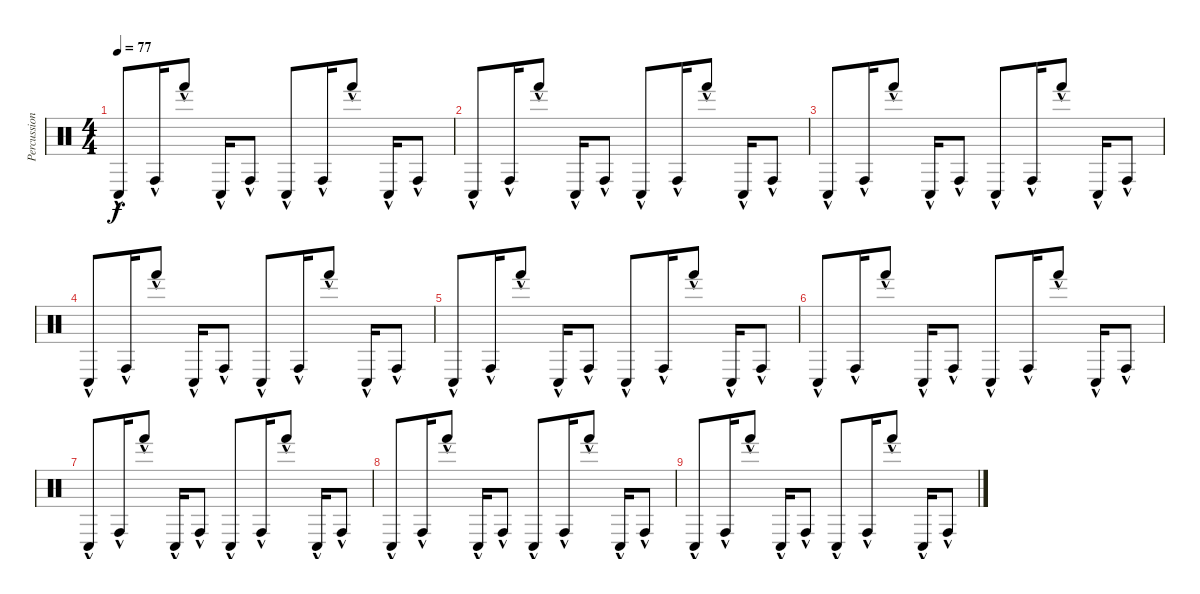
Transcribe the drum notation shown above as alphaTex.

\track ("Percussion" "Percussion") {instrument percussion}
\staff {score}
\articulation defaults
\ts (4 4)
\tempo 77
\clef neutral
\ks c "Conga low (hit)"{hac}.8{dy f} "Conga high (hit)"{hac}.16 "Hand (hit)"{hac}.8 "Conga low (hit)"{hac}.16 "Conga high (hit)"{hac}.8 "Conga low (hit)"{hac}.8 "Conga high (hit)"{hac}.16 "Hand (hit)"{hac}.8 "Conga low (hit)"{hac}.16 "Conga high (hit)"{hac}.8
|
"Conga low (hit)"{hac}.8 "Conga high (hit)"{hac}.16 "Hand (hit)"{hac}.8 "Conga low (hit)"{hac}.16 "Conga high (hit)"{hac}.8 "Conga low (hit)"{hac}.8 "Conga high (hit)"{hac}.16 "Hand (hit)"{hac}.8 "Conga low (hit)"{hac}.16 "Conga high (hit)"{hac}.8 |
"Conga low (hit)"{hac}.8 "Conga high (hit)"{hac}.16 "Hand (hit)"{hac}.8 "Conga low (hit)"{hac}.16 "Conga high (hit)"{hac}.8 "Conga low (hit)"{hac}.8 "Conga high (hit)"{hac}.16 "Hand (hit)"{hac}.8 "Conga low (hit)"{hac}.16 "Conga high (hit)"{hac}.8 |
"Conga low (hit)"{hac}.8 "Conga high (hit)"{hac}.16 "Hand (hit)"{hac}.8 "Conga low (hit)"{hac}.16 "Conga high (hit)"{hac}.8 "Conga low (hit)"{hac}.8 "Conga high (hit)"{hac}.16 "Hand (hit)"{hac}.8 "Conga low (hit)"{hac}.16 "Conga high (hit)"{hac}.8 |
"Conga low (hit)"{hac}.8 "Conga high (hit)"{hac}.16 "Hand (hit)"{hac}.8 "Conga low (hit)"{hac}.16 "Conga high (hit)"{hac}.8 "Conga low (hit)"{hac}.8 "Conga high (hit)"{hac}.16 "Hand (hit)"{hac}.8 "Conga low (hit)"{hac}.16 "Conga high (hit)"{hac}.8 |
"Conga low (hit)"{hac}.8{volume 10} "Conga high (hit)"{hac}.16 "Hand (hit)"{hac}.8 "Conga low (hit)"{hac}.16 "Conga high (hit)"{hac}.8 "Conga low (hit)"{hac}.8 "Conga high (hit)"{hac}.16 "Hand (hit)"{hac}.8 "Conga low (hit)"{hac}.16 "Conga high (hit)"{hac}.8 |
"Conga low (hit)"{hac}.8 "Conga high (hit)"{hac}.16 "Hand (hit)"{hac}.8 "Conga low (hit)"{hac}.16 "Conga high (hit)"{hac}.8 "Conga low (hit)"{hac}.8 "Conga high (hit)"{hac}.16 "Hand (hit)"{hac}.8 "Conga low (hit)"{hac}.16 "Conga high (hit)"{hac}.8 |
"Conga low (hit)"{hac}.8{volume 0} "Conga high (hit)"{hac}.16 "Hand (hit)"{hac}.8 "Conga low (hit)"{hac}.16 "Conga high (hit)"{hac}.8 "Conga low (hit)"{hac}.8 "Conga high (hit)"{hac}.16 "Hand (hit)"{hac}.8 "Conga low (hit)"{hac}.16 "Conga high (hit)"{hac}.8 |
"Conga low (hit)"{hac}.8 "Conga high (hit)"{hac}.16 "Hand (hit)"{hac}.8 "Conga low (hit)"{hac}.16 "Conga high (hit)"{hac}.8 "Conga low (hit)"{hac}.8 "Conga high (hit)"{hac}.16 "Hand (hit)"{hac}.8 "Conga low (hit)"{hac}.16 "Conga high (hit)"{hac}.8
